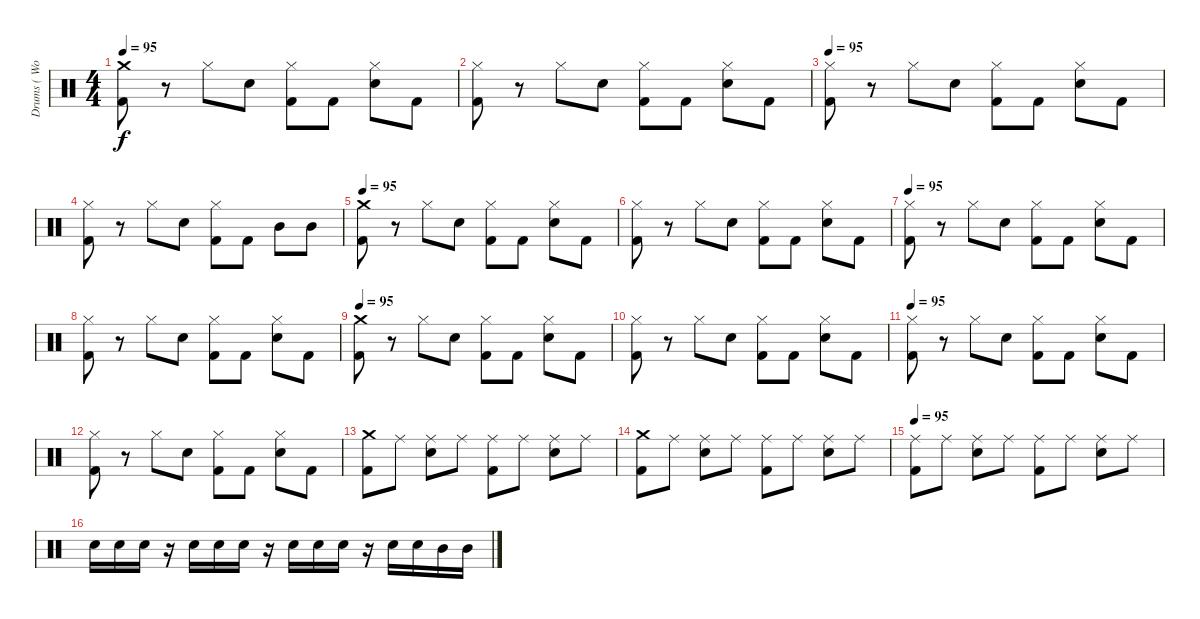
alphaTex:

\track ("Drums ( Wolf Simons)" "Drums ( Wo") {instrument percussion}
\staff {score}
\articulation defaults
\ts (4 4)
\tempo 95
\clef neutral
\ks c
("Crash medium (hit)" "Kick (hit) 2").8{dy f} r.8 "Hi-Hat (closed)".8 "Electric Snare (hit)".8 ("Hi-Hat (closed)" "Kick (hit) 2").8 "Kick (hit) 2".8 ("Hi-Hat (closed)" "Electric Snare (hit)").8 "Kick (hit) 2".8 |
("Hi-Hat (closed)" "Kick (hit) 2").8 r.8 "Hi-Hat (closed)".8 "Electric Snare (hit)".8 ("Hi-Hat (closed)" "Kick (hit) 2").8 "Kick (hit) 2".8 ("Hi-Hat (closed)" "Electric Snare (hit)").8 "Kick (hit) 2".8 |
\tempo 95
("Hi-Hat (closed)" "Kick (hit) 2").8 r.8 "Hi-Hat (closed)".8 "Electric Snare (hit)".8 ("Hi-Hat (closed)" "Kick (hit) 2").8 "Kick (hit) 2".8 ("Hi-Hat (closed)" "Electric Snare (hit)").8 "Kick (hit) 2".8 |
("Hi-Hat (closed)" "Kick (hit) 2").8 r.8 "Hi-Hat (closed)".8 "Electric Snare (hit)".8 ("Hi-Hat (closed)" "Kick (hit) 2").8 "Kick (hit) 2".8 "Mid Tom (hit)".8 "Mid Tom (hit)".8 |
\tempo 95
("Crash medium (hit)" "Kick (hit) 2").8 r.8 "Hi-Hat (closed)".8 "Electric Snare (hit)".8 ("Hi-Hat (closed)" "Kick (hit) 2").8 "Kick (hit) 2".8 ("Hi-Hat (closed)" "Electric Snare (hit)").8 "Kick (hit) 2".8 |
("Hi-Hat (closed)" "Kick (hit) 2").8 r.8 "Hi-Hat (closed)".8 "Electric Snare (hit)".8 ("Hi-Hat (closed)" "Kick (hit) 2").8 "Kick (hit) 2".8 ("Hi-Hat (closed)" "Electric Snare (hit)").8 "Kick (hit) 2".8 |
\tempo 95
("Hi-Hat (closed)" "Kick (hit) 2").8 r.8 "Hi-Hat (closed)".8 "Electric Snare (hit)".8 ("Hi-Hat (closed)" "Kick (hit) 2").8 "Kick (hit) 2".8 ("Hi-Hat (closed)" "Electric Snare (hit)").8 "Kick (hit) 2".8 |
("Hi-Hat (closed)" "Kick (hit) 2").8 r.8 "Hi-Hat (closed)".8 "Electric Snare (hit)".8 ("Hi-Hat (closed)" "Kick (hit) 2").8 "Kick (hit) 2".8 ("Hi-Hat (closed)" "Electric Snare (hit)").8 "Kick (hit) 2".8 |
\tempo 95
("Crash medium (hit)" "Kick (hit) 2").8 r.8 "Hi-Hat (closed)".8 "Electric Snare (hit)".8 ("Hi-Hat (closed)" "Kick (hit) 2").8 "Kick (hit) 2".8 ("Hi-Hat (closed)" "Electric Snare (hit)").8 "Kick (hit) 2".8 |
("Hi-Hat (closed)" "Kick (hit) 2").8 r.8 "Hi-Hat (closed)".8 "Electric Snare (hit)".8 ("Hi-Hat (closed)" "Kick (hit) 2").8 "Kick (hit) 2".8 ("Hi-Hat (closed)" "Electric Snare (hit)").8 "Kick (hit) 2".8 |
\tempo 95
("Hi-Hat (closed)" "Kick (hit) 2").8 r.8 "Hi-Hat (closed)".8 "Electric Snare (hit)".8 ("Hi-Hat (closed)" "Kick (hit) 2").8 "Kick (hit) 2".8 ("Hi-Hat (closed)" "Electric Snare (hit)").8 "Kick (hit) 2".8 |
("Hi-Hat (closed)" "Kick (hit) 2").8 r.8 "Hi-Hat (closed)".8 "Electric Snare (hit)".8 ("Hi-Hat (closed)" "Kick (hit) 2").8 "Kick (hit) 2".8 ("Hi-Hat (closed)" "Electric Snare (hit)").8 "Kick (hit) 2".8 |
("Crash medium (hit)" "Kick (hit) 2").8 "Ride (middle)".8 ("Ride (middle)" "Electric Snare (hit)").8 "Ride (middle)".8 ("Ride (middle)" "Kick (hit) 2").8 "Ride (middle)".8 ("Ride (middle)" "Electric Snare (hit)").8 "Ride (middle)".8 |
("Crash medium (hit)" "Kick (hit) 2").8 "Ride (middle)".8 ("Ride (middle)" "Electric Snare (hit)").8 "Ride (middle)".8 ("Ride (middle)" "Kick (hit) 2").8 "Ride (middle)".8 ("Ride (middle)" "Electric Snare (hit)").8 "Ride (middle)".8 |
\tempo 95
("Ride (middle)" "Kick (hit) 2").8 "Ride (middle)".8 ("Ride (middle)" "Electric Snare (hit)").8 "Ride (middle)".8 ("Ride (middle)" "Kick (hit) 2").8 "Ride (middle)".8 ("Ride (middle)" "Electric Snare (hit)").8 "Ride (middle)".8 |
"Electric Snare (hit)".16 "Electric Snare (hit)".16 "Electric Snare (hit)".16 r.16 "Electric Snare (hit)".16 "Electric Snare (hit)".16 "Electric Snare (hit)".16 r.16 "Electric Snare (hit)".16 "Electric Snare (hit)".16 "Electric Snare (hit)".16 r.16 "Electric Snare (hit)".16 "Electric Snare (hit)".16 "Mid Tom (hit)".16 "Mid Tom (hit)".16
